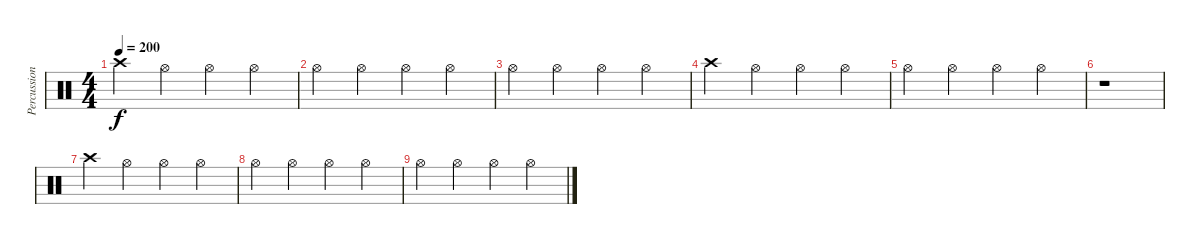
\track ("Percussion" "Percussion") {instrument percussion}
\staff {score}
\articulation defaults
\ts (4 4)
\tempo 200
\clef neutral
\ks c "Crash high (hit)".4{dy f} "Hi-Hat (open)".4 "Hi-Hat (open)".4 "Hi-Hat (open)".4
|
"Hi-Hat (open)".4 "Hi-Hat (open)".4 "Hi-Hat (open)".4 "Hi-Hat (open)".4 |
"Hi-Hat (open)".4 "Hi-Hat (open)".4 "Hi-Hat (open)".4 "Hi-Hat (open)".4 |
"Crash high (hit)".4 "Hi-Hat (open)".4 "Hi-Hat (open)".4 "Hi-Hat (open)".4 |
"Hi-Hat (open)".4 "Hi-Hat (open)".4 "Hi-Hat (open)".4 "Hi-Hat (open)".4 |
r.1 |
"Crash high (hit)".4 "Hi-Hat (open)".4 "Hi-Hat (open)".4 "Hi-Hat (open)".4 |
"Hi-Hat (open)".4 "Hi-Hat (open)".4 "Hi-Hat (open)".4 "Hi-Hat (open)".4 |
"Hi-Hat (open)".4 "Hi-Hat (open)".4 "Hi-Hat (open)".4 "Hi-Hat (open)".4
